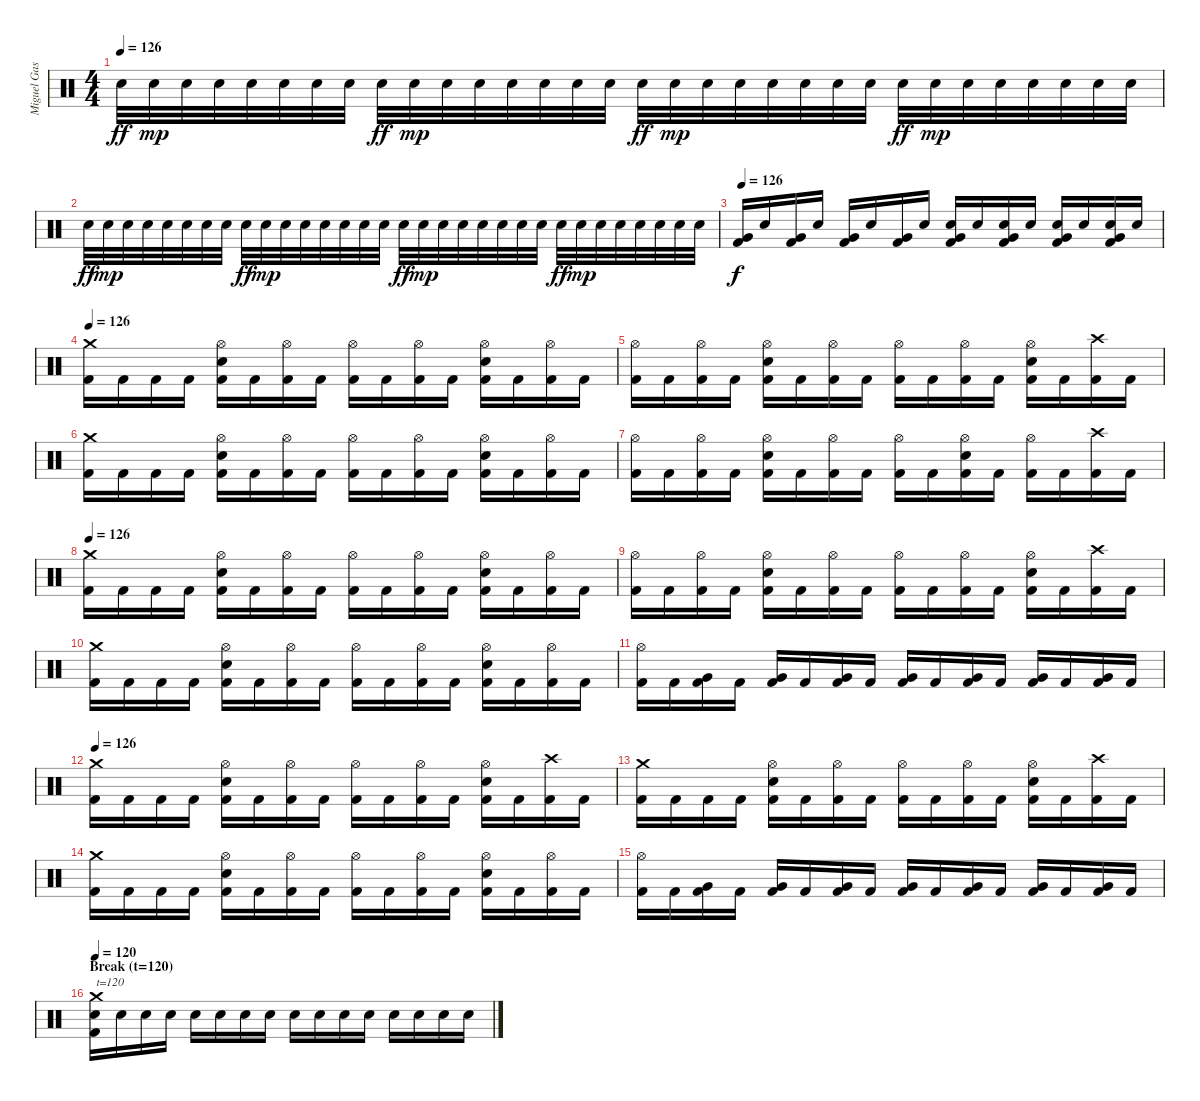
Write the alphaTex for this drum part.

\track ("Miguel Gaspar - Drums" "Miguel Gas") {instrument percussion}
\staff {score}
\articulation defaults
\ts (4 4)
\tempo 126
\clef neutral
\ks c "Electric Snare (hit)".32{dy ff} "Electric Snare (hit)".32{dy mp} "Electric Snare (hit)".32 "Electric Snare (hit)".32 "Electric Snare (hit)".32 "Electric Snare (hit)".32 "Electric Snare (hit)".32 "Electric Snare (hit)".32 "Electric Snare (hit)".32{dy ff} "Electric Snare (hit)".32{dy mp} "Electric Snare (hit)".32 "Electric Snare (hit)".32 "Electric Snare (hit)".32 "Electric Snare (hit)".32 "Electric Snare (hit)".32 "Electric Snare (hit)".32 "Electric Snare (hit)".32{dy ff} "Electric Snare (hit)".32{dy mp} "Electric Snare (hit)".32 "Electric Snare (hit)".32 "Electric Snare (hit)".32 "Electric Snare (hit)".32 "Electric Snare (hit)".32 "Electric Snare (hit)".32 "Electric Snare (hit)".32{dy ff} "Electric Snare (hit)".32{dy mp} "Electric Snare (hit)".32 "Electric Snare (hit)".32 "Electric Snare (hit)".32 "Electric Snare (hit)".32 "Electric Snare (hit)".32 "Electric Snare (hit)".32
|
"Electric Snare (hit)".32{dy ff} "Electric Snare (hit)".32{dy mp} "Electric Snare (hit)".32 "Electric Snare (hit)".32 "Electric Snare (hit)".32 "Electric Snare (hit)".32 "Electric Snare (hit)".32 "Electric Snare (hit)".32 "Electric Snare (hit)".32{dy ff} "Electric Snare (hit)".32{dy mp} "Electric Snare (hit)".32 "Electric Snare (hit)".32 "Electric Snare (hit)".32 "Electric Snare (hit)".32 "Electric Snare (hit)".32 "Electric Snare (hit)".32 "Electric Snare (hit)".32{dy ff} "Electric Snare (hit)".32{dy mp} "Electric Snare (hit)".32 "Electric Snare (hit)".32 "Electric Snare (hit)".32 "Electric Snare (hit)".32 "Electric Snare (hit)".32 "Electric Snare (hit)".32 "Electric Snare (hit)".32{dy ff} "Electric Snare (hit)".32{dy mp} "Electric Snare (hit)".32 "Electric Snare (hit)".32 "Electric Snare (hit)".32 "Electric Snare (hit)".32 "Electric Snare (hit)".32 "Electric Snare (hit)".32 |
\tempo 126
("Very Low Tom (hit)" "Kick (hit) 2").16{dy f volume 16 balance 8} "Snare (hit)".16 ("Very Low Tom (hit)" "Kick (hit) 2").16 "Snare (hit)".16 ("Very Low Tom (hit)" "Kick (hit) 2").16 "Snare (hit)".16 ("Very Low Tom (hit)" "Kick (hit) 2").16 "Snare (hit)".16 ("Very Low Tom (hit)" "Electric Snare (hit)" "Kick (hit) 2").16 "Snare (hit)".16 ("Very Low Tom (hit)" "Electric Snare (hit)" "Kick (hit) 2").16 "Snare (hit)".16 ("Very Low Tom (hit)" "Electric Snare (hit)" "Kick (hit) 2").16 "Snare (hit)".16 ("Very Low Tom (hit)" "Electric Snare (hit)" "Kick (hit) 2").16 "Snare (hit)".16 |
\section ("" "")
\tempo 126
("Crash medium (hit)" "Kick (hit) 2").16{volume 16 balance 8} "Kick (hit) 2".16 "Kick (hit) 2".16 "Kick (hit) 2".16 ("Hi-Hat (open)" "Electric Snare (hit)" "Kick (hit) 2").16 "Kick (hit) 2".16 ("Hi-Hat (open)" "Kick (hit) 2").16 "Kick (hit) 2".16 ("Hi-Hat (open)" "Kick (hit) 2").16 "Kick (hit) 2".16 ("Hi-Hat (open)" "Kick (hit) 2").16 "Kick (hit) 2".16 ("Hi-Hat (open)" "Electric Snare (hit)" "Kick (hit) 2").16 "Kick (hit) 2".16 ("Hi-Hat (open)" "Kick (hit) 2").16 "Kick (hit) 2".16 |
("Hi-Hat (open)" "Kick (hit) 2").16 "Kick (hit) 2".16 ("Hi-Hat (open)" "Kick (hit) 2").16 "Kick (hit) 2".16 ("Hi-Hat (open)" "Electric Snare (hit)" "Kick (hit) 2").16 "Kick (hit) 2".16 ("Hi-Hat (open)" "Kick (hit) 2").16 "Kick (hit) 2".16 ("Hi-Hat (open)" "Kick (hit) 2").16 "Kick (hit) 2".16 ("Hi-Hat (open)" "Kick (hit) 2").16 "Kick (hit) 2".16 ("Hi-Hat (open)" "Electric Snare (hit)" "Kick (hit) 2").16 "Kick (hit) 2".16 ("Crash high (hit)" "Kick (hit) 2").16 "Kick (hit) 2".16 |
("Crash medium (hit)" "Kick (hit) 2").16 "Kick (hit) 2".16 "Kick (hit) 2".16 "Kick (hit) 2".16 ("Hi-Hat (open)" "Electric Snare (hit)" "Kick (hit) 2").16 "Kick (hit) 2".16 ("Hi-Hat (open)" "Kick (hit) 2").16 "Kick (hit) 2".16 ("Hi-Hat (open)" "Kick (hit) 2").16 "Kick (hit) 2".16 ("Hi-Hat (open)" "Kick (hit) 2").16 "Kick (hit) 2".16 ("Hi-Hat (open)" "Electric Snare (hit)" "Kick (hit) 2").16 "Kick (hit) 2".16 ("Hi-Hat (open)" "Kick (hit) 2").16 "Kick (hit) 2".16 |
("Hi-Hat (open)" "Kick (hit) 2").16 "Kick (hit) 2".16 ("Hi-Hat (open)" "Kick (hit) 2").16 "Kick (hit) 2".16 ("Hi-Hat (open)" "Electric Snare (hit)" "Kick (hit) 2").16 "Kick (hit) 2".16 ("Hi-Hat (open)" "Kick (hit) 2").16 "Kick (hit) 2".16 ("Hi-Hat (open)" "Kick (hit) 2").16 "Kick (hit) 2".16 ("Hi-Hat (open)" "Electric Snare (hit)" "Kick (hit) 2").16 "Kick (hit) 2".16 ("Hi-Hat (open)" "Kick (hit) 2").16 "Kick (hit) 2".16 ("Crash high (hit)" "Kick (hit) 2").16 "Kick (hit) 2".16 |
\tempo 126
("Crash medium (hit)" "Kick (hit) 2").16{volume 16 balance 8} "Kick (hit) 2".16 "Kick (hit) 2".16 "Kick (hit) 2".16 ("Hi-Hat (open)" "Electric Snare (hit)" "Kick (hit) 2").16 "Kick (hit) 2".16 ("Hi-Hat (open)" "Kick (hit) 2").16 "Kick (hit) 2".16 ("Hi-Hat (open)" "Kick (hit) 2").16 "Kick (hit) 2".16 ("Hi-Hat (open)" "Kick (hit) 2").16 "Kick (hit) 2".16 ("Hi-Hat (open)" "Electric Snare (hit)" "Kick (hit) 2").16 "Kick (hit) 2".16 ("Hi-Hat (open)" "Kick (hit) 2").16 "Kick (hit) 2".16 |
("Hi-Hat (open)" "Kick (hit) 2").16 "Kick (hit) 2".16 ("Hi-Hat (open)" "Kick (hit) 2").16 "Kick (hit) 2".16 ("Hi-Hat (open)" "Electric Snare (hit)" "Kick (hit) 2").16 "Kick (hit) 2".16 ("Hi-Hat (open)" "Kick (hit) 2").16 "Kick (hit) 2".16 ("Hi-Hat (open)" "Kick (hit) 2").16 "Kick (hit) 2".16 ("Hi-Hat (open)" "Kick (hit) 2").16 "Kick (hit) 2".16 ("Hi-Hat (open)" "Electric Snare (hit)" "Kick (hit) 2").16 "Kick (hit) 2".16 ("Crash high (hit)" "Kick (hit) 2").16 "Kick (hit) 2".16 |
("Crash medium (hit)" "Kick (hit) 2").16 "Kick (hit) 2".16 "Kick (hit) 2".16 "Kick (hit) 2".16 ("Hi-Hat (open)" "Electric Snare (hit)" "Kick (hit) 2").16 "Kick (hit) 2".16 ("Hi-Hat (open)" "Kick (hit) 2").16 "Kick (hit) 2".16 ("Hi-Hat (open)" "Kick (hit) 2").16 "Kick (hit) 2".16 ("Hi-Hat (open)" "Kick (hit) 2").16 "Kick (hit) 2".16 ("Hi-Hat (open)" "Electric Snare (hit)" "Kick (hit) 2").16 "Kick (hit) 2".16 ("Hi-Hat (open)" "Kick (hit) 2").16 "Kick (hit) 2".16 |
("Hi-Hat (open)" "Kick (hit) 2").16 "Kick (hit) 2".16 ("Very Low Tom (hit)" "Kick (hit) 2").16 "Kick (hit) 2".16 ("Very Low Tom (hit)" "Kick (hit) 2").16 "Kick (hit) 2".16 ("Very Low Tom (hit)" "Kick (hit) 2").16 "Kick (hit) 2".16 ("Very Low Tom (hit)" "Kick (hit) 2").16 "Kick (hit) 2".16 ("Very Low Tom (hit)" "Kick (hit) 2").16 "Kick (hit) 2".16 ("Very Low Tom (hit)" "Kick (hit) 2").16 "Kick (hit) 2".16 ("Very Low Tom (hit)" "Kick (hit) 2").16 "Kick (hit) 2".16 |
\tempo 126
("Crash medium (hit)" "Kick (hit) 2").16{volume 16 balance 8} "Kick (hit) 2".16 "Kick (hit) 2".16 "Kick (hit) 2".16 ("Hi-Hat (open)" "Electric Snare (hit)" "Kick (hit) 2").16 "Kick (hit) 2".16 ("Hi-Hat (open)" "Kick (hit) 2").16 "Kick (hit) 2".16 ("Hi-Hat (open)" "Kick (hit) 2").16 "Kick (hit) 2".16 ("Hi-Hat (open)" "Kick (hit) 2").16 "Kick (hit) 2".16 ("Hi-Hat (open)" "Electric Snare (hit)" "Kick (hit) 2").16 "Kick (hit) 2".16 ("Crash high (hit)" "Kick (hit) 2").16 "Kick (hit) 2".16 |
("Crash medium (hit)" "Kick (hit) 2").16 "Kick (hit) 2".16 "Kick (hit) 2".16 "Kick (hit) 2".16 ("Hi-Hat (open)" "Electric Snare (hit)" "Kick (hit) 2").16 "Kick (hit) 2".16 ("Hi-Hat (open)" "Kick (hit) 2").16 "Kick (hit) 2".16 ("Hi-Hat (open)" "Kick (hit) 2").16 "Kick (hit) 2".16 ("Hi-Hat (open)" "Kick (hit) 2").16 "Kick (hit) 2".16 ("Hi-Hat (open)" "Electric Snare (hit)" "Kick (hit) 2").16 "Kick (hit) 2".16 ("Crash high (hit)" "Kick (hit) 2").16 "Kick (hit) 2".16 |
("Crash medium (hit)" "Kick (hit) 2").16 "Kick (hit) 2".16 "Kick (hit) 2".16 "Kick (hit) 2".16 ("Hi-Hat (open)" "Electric Snare (hit)" "Kick (hit) 2").16 "Kick (hit) 2".16 ("Hi-Hat (open)" "Kick (hit) 2").16 "Kick (hit) 2".16 ("Hi-Hat (open)" "Kick (hit) 2").16 "Kick (hit) 2".16 ("Hi-Hat (open)" "Kick (hit) 2").16 "Kick (hit) 2".16 ("Hi-Hat (open)" "Electric Snare (hit)" "Kick (hit) 2").16 "Kick (hit) 2".16 ("Hi-Hat (open)" "Kick (hit) 2").16 "Kick (hit) 2".16 |
("Hi-Hat (open)" "Kick (hit) 2").16 "Kick (hit) 2".16 ("Very Low Tom (hit)" "Kick (hit) 2").16 "Kick (hit) 2".16 ("Very Low Tom (hit)" "Kick (hit) 2").16 "Kick (hit) 2".16 ("Very Low Tom (hit)" "Kick (hit) 2").16 "Kick (hit) 2".16 ("Very Low Tom (hit)" "Kick (hit) 2").16 "Kick (hit) 2".16 ("Very Low Tom (hit)" "Kick (hit) 2").16 "Kick (hit) 2".16 ("Very Low Tom (hit)" "Kick (hit) 2").16 "Kick (hit) 2".16 ("Very Low Tom (hit)" "Kick (hit) 2").16 "Kick (hit) 2".16 |
\section ("" "Break (t=120)")
\tempo 120
("Crash medium (hit)" "Electric Snare (hit)" "Kick (hit) 2").16{txt "t=120" volume 16 balance 8} "Snare (hit)".16 "Snare (hit)".16 "Snare (hit)".16 "Snare (hit)".16 "Snare (hit)".16 "Snare (hit)".16 "Snare (hit)".16 "Snare (hit)".16 "Snare (hit)".16 "Snare (hit)".16 "Snare (hit)".16 "Snare (hit)".16 "Snare (hit)".16 "Snare (hit)".16 "Snare (hit)".16
